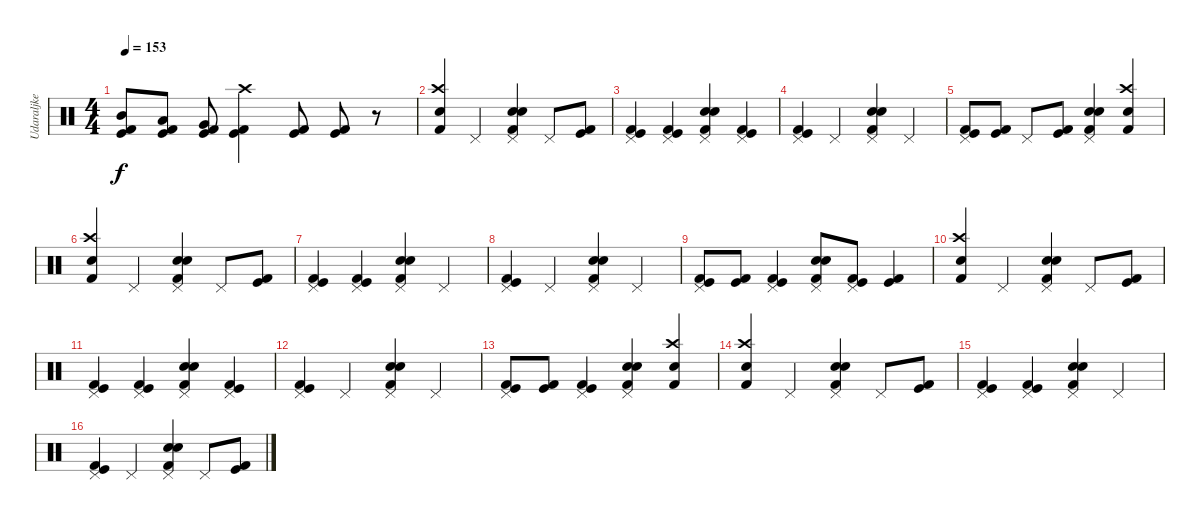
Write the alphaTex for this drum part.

\track ("Udaraljke" "Udaraljke") {instrument percussion}
\staff {score}
\articulation defaults
\ts (4 4)
\tempo 153
\clef neutral
\ks c
("Mid Tom (hit)" "Kick (hit) 2" "Kick (hit)").8{dy f} ("Low Tom (hit)" "Kick (hit) 2" "Kick (hit)").8 ("Very Low Tom (hit)" "Kick (hit) 2" "Kick (hit)").8 ("Crash high (hit)" "Kick (hit) 2" "Kick (hit)").4 ("Kick (hit) 2" "Kick (hit)").8 ("Kick (hit) 2" "Kick (hit)").8 r.8 |
("Crash high (hit)" "Snare (hit) 2" "Kick (hit) 2").4 "Pedal Hi-Hat (hit)".4 ("Pedal Hi-Hat (hit)" "Electric Snare (hit)" "Snare (hit) 2" "Kick (hit) 2").4 "Pedal Hi-Hat (hit)".8 ("Kick (hit) 2" "Kick (hit)").8 |
("Pedal Hi-Hat (hit)" "Kick (hit) 2" "Kick (hit)").4 ("Pedal Hi-Hat (hit)" "Kick (hit) 2" "Kick (hit)").4 ("Pedal Hi-Hat (hit)" "Electric Snare (hit)" "Snare (hit) 2" "Kick (hit) 2").4 ("Pedal Hi-Hat (hit)" "Kick (hit) 2" "Kick (hit)").4 |
("Pedal Hi-Hat (hit)" "Kick (hit) 2" "Kick (hit)").4 "Pedal Hi-Hat (hit)".4 ("Pedal Hi-Hat (hit)" "Electric Snare (hit)" "Snare (hit) 2" "Kick (hit) 2").4 "Pedal Hi-Hat (hit)".4 |
("Pedal Hi-Hat (hit)" "Kick (hit) 2" "Kick (hit)").8 ("Kick (hit) 2" "Kick (hit)").8 "Pedal Hi-Hat (hit)".8 ("Kick (hit) 2" "Kick (hit)").8 ("Pedal Hi-Hat (hit)" "Electric Snare (hit)" "Snare (hit) 2" "Kick (hit) 2").4 ("Crash high (hit)" "Snare (hit) 2" "Kick (hit) 2").4 |
("Crash high (hit)" "Snare (hit) 2" "Kick (hit) 2").4 "Pedal Hi-Hat (hit)".4 ("Pedal Hi-Hat (hit)" "Electric Snare (hit)" "Snare (hit) 2" "Kick (hit) 2").4 "Pedal Hi-Hat (hit)".8 ("Kick (hit) 2" "Kick (hit)").8 |
("Pedal Hi-Hat (hit)" "Kick (hit) 2" "Kick (hit)").4 ("Pedal Hi-Hat (hit)" "Kick (hit) 2" "Kick (hit)").4 ("Pedal Hi-Hat (hit)" "Electric Snare (hit)" "Snare (hit) 2" "Kick (hit) 2").4 "Pedal Hi-Hat (hit)".4 |
("Pedal Hi-Hat (hit)" "Kick (hit) 2" "Kick (hit)").4 "Pedal Hi-Hat (hit)".4 ("Pedal Hi-Hat (hit)" "Electric Snare (hit)" "Snare (hit) 2" "Kick (hit) 2").4 "Pedal Hi-Hat (hit)".4 |
("Pedal Hi-Hat (hit)" "Kick (hit) 2" "Kick (hit)").8 ("Kick (hit) 2" "Kick (hit)").8 ("Pedal Hi-Hat (hit)" "Kick (hit) 2" "Kick (hit)").4 ("Pedal Hi-Hat (hit)" "Electric Snare (hit)" "Snare (hit) 2" "Kick (hit) 2").8 ("Pedal Hi-Hat (hit)" "Kick (hit) 2" "Kick (hit)").8 ("Kick (hit) 2" "Kick (hit)").4 |
("Crash high (hit)" "Snare (hit) 2" "Kick (hit) 2").4 "Pedal Hi-Hat (hit)".4 ("Pedal Hi-Hat (hit)" "Electric Snare (hit)" "Snare (hit) 2" "Kick (hit) 2").4 "Pedal Hi-Hat (hit)".8 ("Kick (hit) 2" "Kick (hit)").8 |
("Pedal Hi-Hat (hit)" "Kick (hit) 2" "Kick (hit)").4 ("Pedal Hi-Hat (hit)" "Kick (hit) 2" "Kick (hit)").4 ("Pedal Hi-Hat (hit)" "Electric Snare (hit)" "Snare (hit) 2" "Kick (hit) 2").4 ("Pedal Hi-Hat (hit)" "Kick (hit) 2" "Kick (hit)").4 |
("Pedal Hi-Hat (hit)" "Kick (hit) 2" "Kick (hit)").4 "Pedal Hi-Hat (hit)".4 ("Pedal Hi-Hat (hit)" "Electric Snare (hit)" "Snare (hit) 2" "Kick (hit) 2").4 "Pedal Hi-Hat (hit)".4 |
("Pedal Hi-Hat (hit)" "Kick (hit) 2" "Kick (hit)").8 ("Kick (hit) 2" "Kick (hit)").8 ("Pedal Hi-Hat (hit)" "Kick (hit) 2" "Kick (hit)").4 ("Pedal Hi-Hat (hit)" "Electric Snare (hit)" "Snare (hit) 2" "Kick (hit) 2").4 ("Crash high (hit)" "Snare (hit) 2" "Kick (hit) 2").4 |
("Crash high (hit)" "Snare (hit) 2" "Kick (hit) 2").4 "Pedal Hi-Hat (hit)".4 ("Pedal Hi-Hat (hit)" "Electric Snare (hit)" "Snare (hit) 2" "Kick (hit) 2").4 "Pedal Hi-Hat (hit)".8 ("Kick (hit) 2" "Kick (hit)").8 |
("Pedal Hi-Hat (hit)" "Kick (hit) 2" "Kick (hit)").4 ("Pedal Hi-Hat (hit)" "Kick (hit) 2" "Kick (hit)").4 ("Pedal Hi-Hat (hit)" "Electric Snare (hit)" "Snare (hit) 2" "Kick (hit) 2").4 "Pedal Hi-Hat (hit)".4 |
("Pedal Hi-Hat (hit)" "Kick (hit) 2" "Kick (hit)").4 "Pedal Hi-Hat (hit)".4 ("Pedal Hi-Hat (hit)" "Electric Snare (hit)" "Snare (hit) 2" "Kick (hit) 2").4 "Pedal Hi-Hat (hit)".8 ("Kick (hit) 2" "Kick (hit)").8
